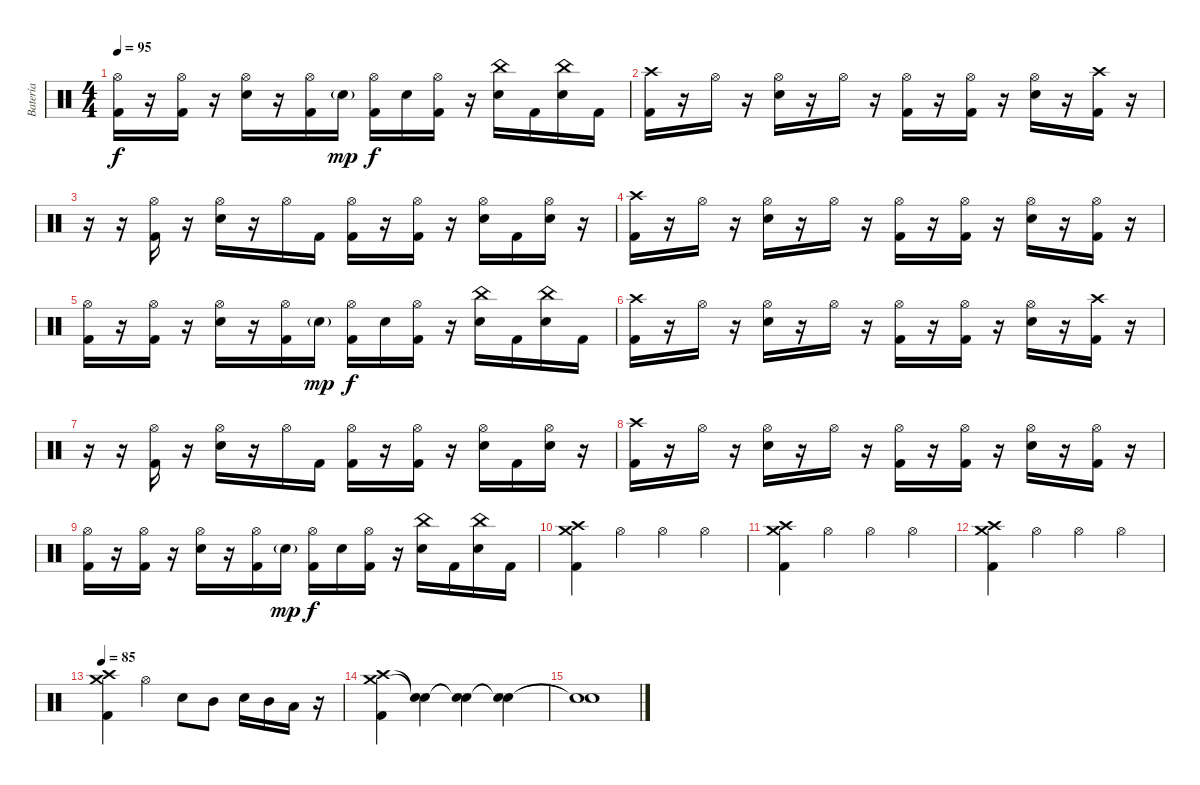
\track ("Batería" "Batería") {instrument percussion}
\staff {score}
\articulation defaults
\ts (4 4)
\tempo 95
\clef neutral
\ks c
("Hi-Hat (open)" "Kick (hit) 2").16{dy f} r.16 ("Hi-Hat (open)" "Kick (hit) 2").16 r.16 ("Hi-Hat (open)" "Electric Snare (hit)").16 r.16 ("Hi-Hat (open)" "Kick (hit) 2").16 "Electric Snare (hit)"{g}.16{dy mp} ("Hi-Hat (open)" "Kick (hit) 2").16{dy f} "Electric Snare (hit)".16 ("Hi-Hat (open)" "Kick (hit) 2").16 r.16 ("China (hit)" "Electric Snare (hit)").16 "Kick (hit) 2".16 ("China (hit)" "Electric Snare (hit)").16 "Kick (hit) 2".16 |
("Crash high (hit)" "Kick (hit) 2").16 r.16 "Hi-Hat (open)".16 r.16 ("Hi-Hat (open)" "Electric Snare (hit)").16 r.16 "Hi-Hat (open)".16 r.16 ("Hi-Hat (open)" "Kick (hit) 2").16 r.16 ("Hi-Hat (open)" "Kick (hit) 2").16 r.16 ("Hi-Hat (open)" "Electric Snare (hit)").16 r.16 ("Crash high (hit)" "Kick (hit) 2").16 r.16 |
r.16 r.16 ("Hi-Hat (open)" "Kick (hit) 2").16 r.16 ("Hi-Hat (open)" "Electric Snare (hit)").16 r.16 "Hi-Hat (open)".16 "Kick (hit) 2".16 ("Hi-Hat (open)" "Kick (hit) 2").16 r.16 ("Hi-Hat (open)" "Kick (hit) 2").16 r.16 ("Hi-Hat (open)" "Electric Snare (hit)").16 "Kick (hit) 2".16 ("Hi-Hat (open)" "Electric Snare (hit)").16 r.16 |
("Crash high (hit)" "Kick (hit) 2").16 r.16 "Hi-Hat (open)".16 r.16 ("Hi-Hat (open)" "Electric Snare (hit)").16 r.16 "Hi-Hat (open)".16 r.16 ("Hi-Hat (open)" "Kick (hit) 2").16 r.16 ("Hi-Hat (open)" "Kick (hit) 2").16 r.16 ("Hi-Hat (open)" "Electric Snare (hit)").16 r.16 ("Hi-Hat (open)" "Kick (hit) 2").16 r.16 |
("Hi-Hat (open)" "Kick (hit) 2").16 r.16 ("Hi-Hat (open)" "Kick (hit) 2").16 r.16 ("Hi-Hat (open)" "Electric Snare (hit)").16 r.16 ("Hi-Hat (open)" "Kick (hit) 2").16 "Electric Snare (hit)"{g}.16{dy mp} ("Hi-Hat (open)" "Kick (hit) 2").16{dy f} "Electric Snare (hit)".16 ("Hi-Hat (open)" "Kick (hit) 2").16 r.16 ("China (hit)" "Electric Snare (hit)").16 "Kick (hit) 2".16 ("China (hit)" "Electric Snare (hit)").16 "Kick (hit) 2".16 |
("Crash high (hit)" "Kick (hit) 2").16 r.16 "Hi-Hat (open)".16 r.16 ("Hi-Hat (open)" "Electric Snare (hit)").16 r.16 "Hi-Hat (open)".16 r.16 ("Hi-Hat (open)" "Kick (hit) 2").16 r.16 ("Hi-Hat (open)" "Kick (hit) 2").16 r.16 ("Hi-Hat (open)" "Electric Snare (hit)").16 r.16 ("Crash high (hit)" "Kick (hit) 2").16 r.16 |
r.16 r.16 ("Hi-Hat (open)" "Kick (hit) 2").16 r.16 ("Hi-Hat (open)" "Electric Snare (hit)").16 r.16 "Hi-Hat (open)".16 "Kick (hit) 2".16 ("Hi-Hat (open)" "Kick (hit) 2").16 r.16 ("Hi-Hat (open)" "Kick (hit) 2").16 r.16 ("Hi-Hat (open)" "Electric Snare (hit)").16 "Kick (hit) 2".16 ("Hi-Hat (open)" "Electric Snare (hit)").16 r.16 |
("Crash high (hit)" "Kick (hit) 2").16 r.16 "Hi-Hat (open)".16 r.16 ("Hi-Hat (open)" "Electric Snare (hit)").16 r.16 "Hi-Hat (open)".16 r.16 ("Hi-Hat (open)" "Kick (hit) 2").16 r.16 ("Hi-Hat (open)" "Kick (hit) 2").16 r.16 ("Hi-Hat (open)" "Electric Snare (hit)").16 r.16 ("Hi-Hat (open)" "Kick (hit) 2").16 r.16 |
("Hi-Hat (open)" "Kick (hit) 2").16 r.16 ("Hi-Hat (open)" "Kick (hit) 2").16 r.16 ("Hi-Hat (open)" "Electric Snare (hit)").16 r.16 ("Hi-Hat (open)" "Kick (hit) 2").16 "Electric Snare (hit)"{g}.16{dy mp} ("Hi-Hat (open)" "Kick (hit) 2").16{dy f} "Electric Snare (hit)".16 ("Hi-Hat (open)" "Kick (hit) 2").16 r.16 ("China (hit)" "Electric Snare (hit)").16 "Kick (hit) 2".16 ("China (hit)" "Electric Snare (hit)").16 "Kick (hit) 2".16 |
("Crash high (hit)" "Crash medium (hit)" "Kick (hit) 2").4 "Hi-Hat (open)".4 "Hi-Hat (open)".4 "Hi-Hat (open)".4 |
("Crash high (hit)" "Crash medium (hit)" "Kick (hit) 2").4 "Hi-Hat (open)".4 "Hi-Hat (open)".4 "Hi-Hat (open)".4 |
("Crash high (hit)" "Crash medium (hit)" "Kick (hit) 2").4 "Hi-Hat (open)".4 "Hi-Hat (open)".4 "Hi-Hat (open)".4 |
\tempo 85
("Crash high (hit)" "Crash medium (hit)" "Kick (hit) 2").4 "Hi-Hat (open)".4 "Electric Snare (hit)".8 "Mid Tom (hit)".8 "Electric Snare (hit)".16 "Mid Tom (hit)".16 "Low Tom (hit)".16 r.16 |
("Crash high (hit)" "Crash medium (hit)" "Kick (hit) 2").4 ("Snare (hit)"{t} "Snare (hit)"{t}).4 ("Snare (hit)"{t} "Snare (hit)"{t}).4 ("Snare (hit)"{t} "Snare (hit)"{t}).4 |
("Snare (hit)"{t} "Snare (hit)"{t}).1
